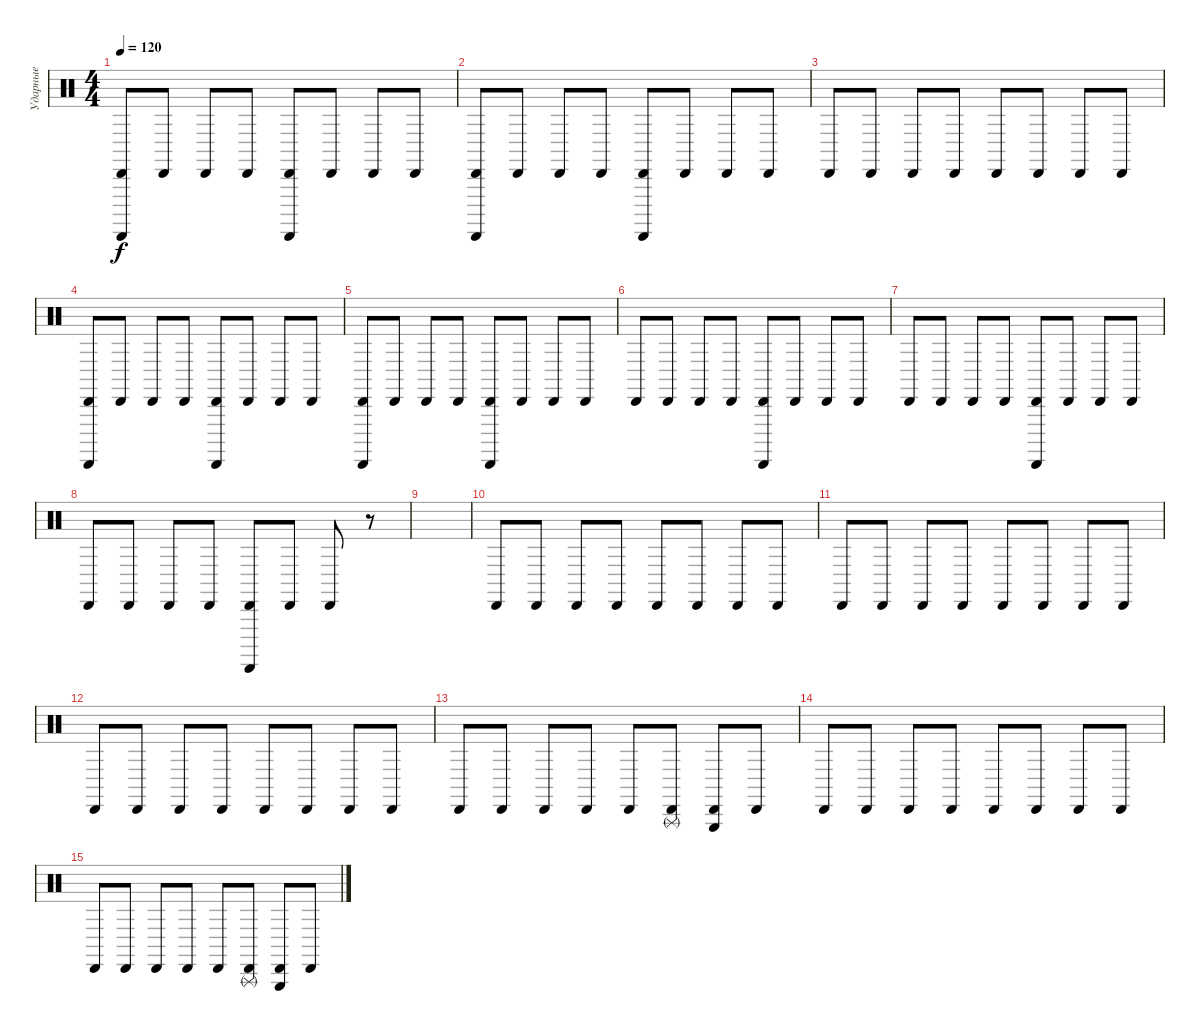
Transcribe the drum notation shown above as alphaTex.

\track ("Ударные" "Ударные") {instrument percussion}
\staff {score}
\articulation defaults
\ts (4 4)
\tempo 120
\clef neutral
\ks c
("Cabasa (hit)" "Guiro (scrap-return)").8{dy f} "Cabasa (hit)".8 "Cabasa (hit)".8 "Cabasa (hit)".8 ("Cabasa (hit)" "Guiro (scrap-return)").8 "Cabasa (hit)".8 "Cabasa (hit)".8 "Cabasa (hit)".8 |
("Cabasa (hit)" "Guiro (scrap-return)").8 "Cabasa (hit)".8 "Cabasa (hit)".8 "Cabasa (hit)".8 ("Cabasa (hit)" "Guiro (scrap-return)").8 "Cabasa (hit)".8 "Cabasa (hit)".8 "Cabasa (hit)".8 |
"Cabasa (hit)".8 "Cabasa (hit)".8 "Cabasa (hit)".8 "Cabasa (hit)".8 "Cabasa (hit)".8 "Cabasa (hit)".8 "Cabasa (hit)".8 "Cabasa (hit)".8 |
("Cabasa (hit)" "Guiro (scrap-return)").8 "Cabasa (hit)".8 "Cabasa (hit)".8 "Cabasa (hit)".8 ("Cabasa (hit)" "Guiro (scrap-return)").8 "Cabasa (hit)".8 "Cabasa (hit)".8 "Cabasa (hit)".8 |
("Cabasa (hit)" "Guiro (scrap-return)").8 "Cabasa (hit)".8 "Cabasa (hit)".8 "Cabasa (hit)".8 ("Cabasa (hit)" "Guiro (scrap-return)").8 "Cabasa (hit)".8 "Cabasa (hit)".8 "Cabasa (hit)".8 |
"Cabasa (hit)".8 "Cabasa (hit)".8 "Cabasa (hit)".8 "Cabasa (hit)".8 ("Cabasa (hit)" "Guiro (scrap-return)").8 "Cabasa (hit)".8 "Cabasa (hit)".8 "Cabasa (hit)".8 |
"Cabasa (hit)".8 "Cabasa (hit)".8 "Cabasa (hit)".8 "Cabasa (hit)".8 ("Cabasa (hit)" "Guiro (scrap-return)").8 "Cabasa (hit)".8 "Cabasa (hit)".8 "Cabasa (hit)".8 |
"Cabasa (hit)".8 "Cabasa (hit)".8 "Cabasa (hit)".8 "Cabasa (hit)".8 ("Cabasa (hit)" "Guiro (scrap-return)").8 "Cabasa (hit)".8 "Cabasa (hit)".8 r.8 |
|
"Cabasa (hit)".8 "Cabasa (hit)".8 "Cabasa (hit)".8 "Cabasa (hit)".8 "Cabasa (hit)".8 "Cabasa (hit)".8 "Cabasa (hit)".8 "Cabasa (hit)".8 |
"Cabasa (hit)".8 "Cabasa (hit)".8 "Cabasa (hit)".8 "Cabasa (hit)".8 "Cabasa (hit)".8 "Cabasa (hit)".8 "Cabasa (hit)".8 "Cabasa (hit)".8 |
"Cabasa (hit)".8 "Cabasa (hit)".8 "Cabasa (hit)".8 "Cabasa (hit)".8 "Cabasa (hit)".8 "Cabasa (hit)".8 "Cabasa (hit)".8 "Cabasa (hit)".8 |
"Cabasa (hit)".8 "Cabasa (hit)".8 "Cabasa (hit)".8 "Cabasa (hit)".8 "Cabasa (hit)".8 ("Cabasa (hit)" "Triangle (rnute)").8 ("Cabasa (hit)" "Triangle (hit)").8 "Cabasa (hit)".8 |
"Cabasa (hit)".8 "Cabasa (hit)".8 "Cabasa (hit)".8 "Cabasa (hit)".8 "Cabasa (hit)".8 "Cabasa (hit)".8 "Cabasa (hit)".8 "Cabasa (hit)".8 |
"Cabasa (hit)".8 "Cabasa (hit)".8 "Cabasa (hit)".8 "Cabasa (hit)".8 "Cabasa (hit)".8 ("Cabasa (hit)" "Triangle (rnute)").8 ("Cabasa (hit)" "Triangle (hit)").8 "Cabasa (hit)".8
